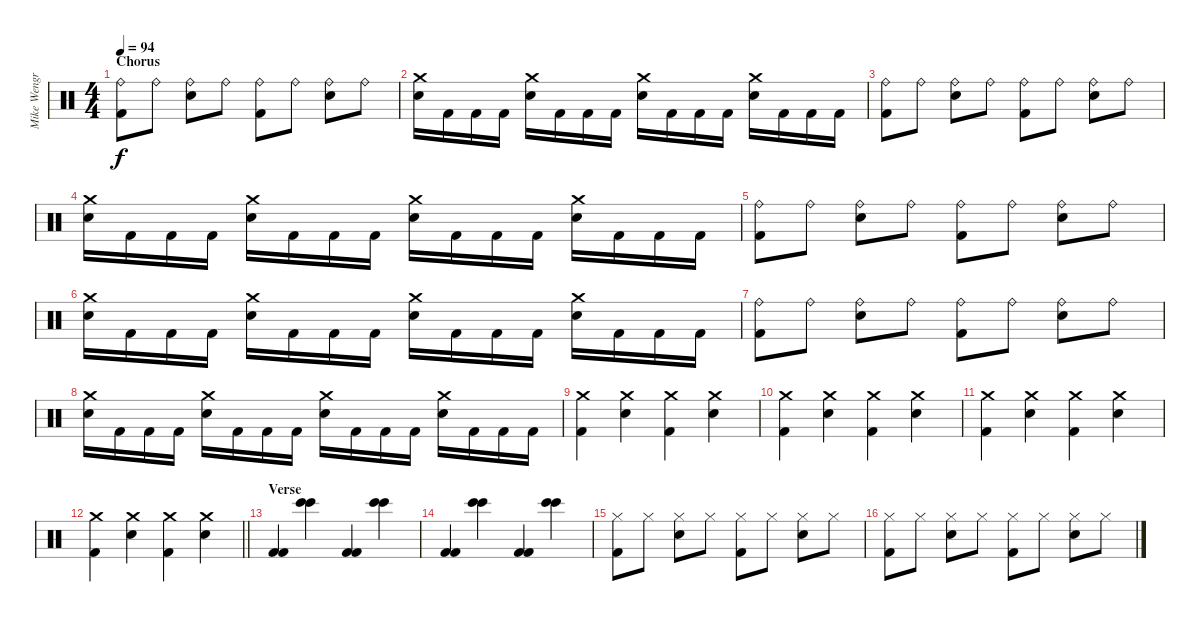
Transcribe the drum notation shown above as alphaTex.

\track ("Mike Wengren" "Mike Wengr") {instrument percussion}
\staff {score}
\articulation defaults
\ts (4 4)
\section ("" "Chorus")
\tempo 94
\clef neutral
\ks c
("Kick (hit) 2" "Ride (bell)").8{dy f} "Ride (bell)".8 ("Electric Snare (hit)" "Ride (bell)").8 "Ride (bell)".8 ("Kick (hit) 2" "Ride (bell)").8 "Ride (bell)".8 ("Electric Snare (hit)" "Ride (bell)").8 "Ride (bell)".8 |
("Electric Snare (hit)" "Crash medium (hit)").16 "Kick (hit) 2".16 "Kick (hit) 2".16 "Kick (hit) 2".16 ("Electric Snare (hit)" "Crash medium (hit)").16 "Kick (hit) 2".16 "Kick (hit) 2".16 "Kick (hit) 2".16 ("Electric Snare (hit)" "Crash medium (hit)").16 "Kick (hit) 2".16 "Kick (hit) 2".16 "Kick (hit) 2".16 ("Electric Snare (hit)" "Crash medium (hit)").16 "Kick (hit) 2".16 "Kick (hit) 2".16 "Kick (hit) 2".16 |
("Kick (hit) 2" "Ride (bell)").8 "Ride (bell)".8 ("Electric Snare (hit)" "Ride (bell)").8 "Ride (bell)".8 ("Kick (hit) 2" "Ride (bell)").8 "Ride (bell)".8 ("Electric Snare (hit)" "Ride (bell)").8 "Ride (bell)".8 |
("Electric Snare (hit)" "Crash medium (hit)").16 "Kick (hit) 2".16 "Kick (hit) 2".16 "Kick (hit) 2".16 ("Electric Snare (hit)" "Crash medium (hit)").16 "Kick (hit) 2".16 "Kick (hit) 2".16 "Kick (hit) 2".16 ("Electric Snare (hit)" "Crash medium (hit)").16 "Kick (hit) 2".16 "Kick (hit) 2".16 "Kick (hit) 2".16 ("Electric Snare (hit)" "Crash medium (hit)").16 "Kick (hit) 2".16 "Kick (hit) 2".16 "Kick (hit) 2".16 |
("Kick (hit) 2" "Ride (bell)").8 "Ride (bell)".8 ("Electric Snare (hit)" "Ride (bell)").8 "Ride (bell)".8 ("Kick (hit) 2" "Ride (bell)").8 "Ride (bell)".8 ("Electric Snare (hit)" "Ride (bell)").8 "Ride (bell)".8 |
("Electric Snare (hit)" "Crash medium (hit)").16 "Kick (hit) 2".16 "Kick (hit) 2".16 "Kick (hit) 2".16 ("Electric Snare (hit)" "Crash medium (hit)").16 "Kick (hit) 2".16 "Kick (hit) 2".16 "Kick (hit) 2".16 ("Electric Snare (hit)" "Crash medium (hit)").16 "Kick (hit) 2".16 "Kick (hit) 2".16 "Kick (hit) 2".16 ("Electric Snare (hit)" "Crash medium (hit)").16 "Kick (hit) 2".16 "Kick (hit) 2".16 "Kick (hit) 2".16 |
("Kick (hit) 2" "Ride (bell)").8 "Ride (bell)".8 ("Electric Snare (hit)" "Ride (bell)").8 "Ride (bell)".8 ("Kick (hit) 2" "Ride (bell)").8 "Ride (bell)".8 ("Electric Snare (hit)" "Ride (bell)").8 "Ride (bell)".8 |
("Electric Snare (hit)" "Crash medium (hit)").16 "Kick (hit) 2".16 "Kick (hit) 2".16 "Kick (hit) 2".16 ("Electric Snare (hit)" "Crash medium (hit)").16 "Kick (hit) 2".16 "Kick (hit) 2".16 "Kick (hit) 2".16 ("Electric Snare (hit)" "Crash medium (hit)").16 "Kick (hit) 2".16 "Kick (hit) 2".16 "Kick (hit) 2".16 ("Electric Snare (hit)" "Crash medium (hit)").16 "Kick (hit) 2".16 "Kick (hit) 2".16 "Kick (hit) 2".16 |
("Kick (hit) 2" "Crash medium (hit)").4 ("Electric Snare (hit)" "Crash medium (hit)").4 ("Kick (hit) 2" "Crash medium (hit)").4 ("Electric Snare (hit)" "Crash medium (hit)").4 |
("Kick (hit) 2" "Crash medium (hit)").4 ("Electric Snare (hit)" "Crash medium (hit)").4 ("Kick (hit) 2" "Crash medium (hit)").4 ("Electric Snare (hit)" "Crash medium (hit)").4 |
("Kick (hit) 2" "Crash medium (hit)").4 ("Electric Snare (hit)" "Crash medium (hit)").4 ("Kick (hit) 2" "Crash medium (hit)").4 ("Electric Snare (hit)" "Crash medium (hit)").4 |
\barLineRight lightlight
("Kick (hit) 2" "Crash medium (hit)").4 ("Electric Snare (hit)" "Crash medium (hit)").4 ("Kick (hit) 2" "Crash medium (hit)").4 ("Electric Snare (hit)" "Crash medium (hit)").4 |
\section ("" "Verse")
("Kick (hit) 2" "Kick (hit) 2").4 ("Bongo High (hit)" "Bongo High (hit)").4 ("Kick (hit) 2" "Kick (hit) 2").4 ("Bongo High (hit)" "Bongo High (hit)").4 |
("Kick (hit) 2" "Kick (hit) 2").4 ("Bongo High (hit)" "Bongo High (hit)").4 ("Kick (hit) 2" "Kick (hit) 2").4 ("Bongo High (hit)" "Bongo High (hit)").4 |
("Kick (hit) 2" "Hi-Hat (closed)").8 "Hi-Hat (closed)".8 ("Electric Snare (hit)" "Hi-Hat (closed)").8 "Hi-Hat (closed)".8 ("Kick (hit) 2" "Hi-Hat (closed)").8 "Hi-Hat (closed)".8 ("Electric Snare (hit)" "Hi-Hat (closed)").8 "Hi-Hat (closed)".8 |
("Kick (hit) 2" "Hi-Hat (closed)").8 "Hi-Hat (closed)".8 ("Electric Snare (hit)" "Hi-Hat (closed)").8 "Hi-Hat (closed)".8 ("Kick (hit) 2" "Hi-Hat (closed)").8 "Hi-Hat (closed)".8 ("Electric Snare (hit)" "Hi-Hat (closed)").8 "Hi-Hat (closed)".8
